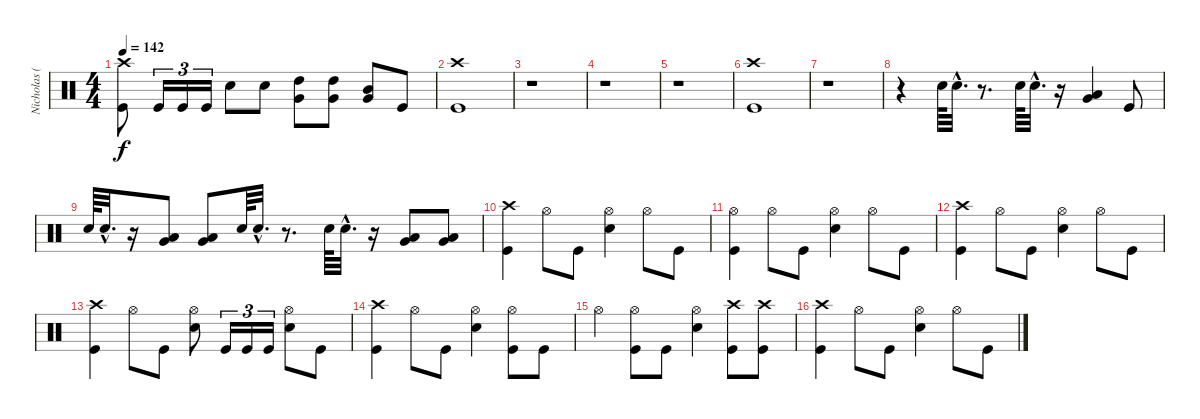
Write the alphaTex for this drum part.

\track ("Nicholas (Drums)" "Nicholas (") {instrument percussion}
\staff {score}
\articulation defaults
\ts (4 4)
\tempo 142
\clef neutral
\ks c
("Crash high (hit)" "Kick (hit)").8{dy f} "Kick (hit)".16{tu (3 2)} "Kick (hit)".16{tu (3 2)} "Kick (hit)".16{tu (3 2)} "Electric Snare (hit)".8 "Electric Snare (hit)".8 ("High Tom (hit)" "Very Low Tom (hit)").8{bd 60} ("High Tom (hit)" "Very Low Tom (hit)").8{bd 60} ("Mid Tom (hit)" "Very Low Tom (hit)").8{bd 60} "Kick (hit)".8 |
("Crash high (hit)" "Kick (hit)").1 |
r.1 |
r.1 |
r.1 |
("Crash high (hit)" "Kick (hit)").1 |
r.1 |
r.4 "Electric Snare (hit)".64 "Electric Snare (hit)"{hac}.32{d} r.8{d} "Electric Snare (hit)".64 "Electric Snare (hit)"{hac}.32{d} r.16 ("Low Tom (hit)" "Very Low Tom (hit)").4{bu 60} "Kick (hit)".8 |
"Electric Snare (hit)".64 "Electric Snare (hit)"{hac}.32{d} r.16 ("Low Tom (hit)" "Very Low Tom (hit)").8{bu 60} ("Low Tom (hit)" "Very Low Tom (hit)").8{bu 60} "Electric Snare (hit)".64 "Electric Snare (hit)"{hac}.32{d} r.8{d} "Electric Snare (hit)".64 "Electric Snare (hit)"{hac}.32{d} r.16 ("Low Tom (hit)" "Very Low Tom (hit)").8{bu 60} ("Low Tom (hit)" "Very Low Tom (hit)").8{bu 60} |
("Crash high (hit)" "Kick (hit)").4 "Hi-Hat (open)".8 "Kick (hit)".8 ("Hi-Hat (open)" "Electric Snare (hit)").4 "Hi-Hat (open)".8 "Kick (hit)".8 |
("Hi-Hat (open)" "Kick (hit)").4 "Hi-Hat (open)".8 "Kick (hit)".8 ("Hi-Hat (open)" "Electric Snare (hit)").4 "Hi-Hat (open)".8 "Kick (hit)".8 |
("Crash high (hit)" "Kick (hit)").4 "Hi-Hat (open)".8 "Kick (hit)".8 ("Hi-Hat (open)" "Electric Snare (hit)").4 "Hi-Hat (open)".8 "Kick (hit)".8 |
("Crash high (hit)" "Kick (hit)").4 "Hi-Hat (open)".8 "Kick (hit)".8 ("Hi-Hat (open)" "Electric Snare (hit)").8 "Kick (hit)".16{tu (3 2)} "Kick (hit)".16{tu (3 2)} "Kick (hit)".16{tu (3 2)} ("Hi-Hat (open)" "Electric Snare (hit)").8 "Kick (hit)".8 |
("Crash high (hit)" "Kick (hit)").4 "Hi-Hat (open)".8 "Kick (hit)".8 ("Hi-Hat (open)" "Electric Snare (hit)").4 ("Hi-Hat (open)" "Kick (hit)").8 "Kick (hit)".8 |
"Hi-Hat (open)".4 ("Hi-Hat (open)" "Kick (hit)").8 "Kick (hit)".8 ("Hi-Hat (open)" "Electric Snare (hit)").4 ("Crash high (hit)" "Kick (hit)").8 ("Crash high (hit)" "Kick (hit)").8 |
("Crash high (hit)" "Kick (hit)").4 "Hi-Hat (open)".8 "Kick (hit)".8 ("Hi-Hat (open)" "Electric Snare (hit)").4 "Hi-Hat (open)".8 "Kick (hit)".8
